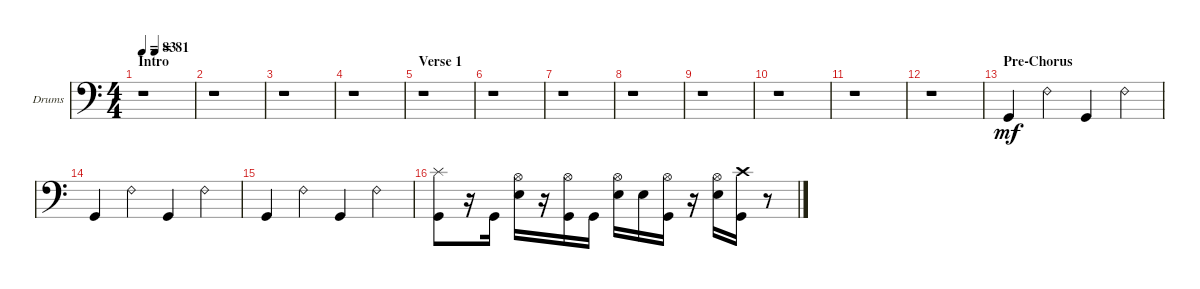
\bracketExtendMode groupsimilarinstruments
\firstSystemTrackNameOrientation horizontal
\otherSystemsTrackNameOrientation horizontal
\track ("Drums" "Drums") {instrument percussion}
\staff {score}
\articulation defaults
\ts (4 4)
\section ("" "Intro")
\tempo 83
\tempo (81 0.25)
\clef f4
\scale
0.474178
\ks c
r.1{dy mf} |
\scale
0.262911 r.1 |
\scale
0.262911 r.1 |
\scale
0.333333 r.1 |
\section ("" "Verse 1")
\scale
0.333333 r.1 |
\scale
0.333333 r.1 |
\scale
0.333333 r.1 |
\scale
0.333333 r.1 |
\scale
0.333333 r.1 |
\scale
0.333333 r.1 |
\scale
0.333333 r.1 |
\scale
0.333333 r.1 |
\section ("" "Pre-Chorus")
\scale
0.333333 "Kick (hit)".4 "Ride (bell) 2".4 "Kick (hit)".4 "Ride (bell) 2".4 |
\scale
0.333333 "Kick (hit)".4 "Ride (bell) 2".4 "Kick (hit)".4 "Ride (bell) 2".4 |
\scale
0.333333 "Kick (hit)".4 "Ride (bell) 2".4 "Kick (hit)".4 "Ride (bell) 2".4 |
\scale
0.333333 ("Kick (hit)" "Splash (hit)").8 r.16 "Kick (hit)".16 ("Snare (hit) 2" "Hi-Hat (open)").16 r.16 ("Kick (hit)" "Hi-Hat (open)").16 "Kick (hit)".16 ("Snare (hit) 2" "Hi-Hat (open)").16 "Snare (hit) 2".16 ("Kick (hit)" "Hi-Hat (open)").16 r.16 ("Snare (hit) 2" "Hi-Hat (open)").16 ("Kick (hit)" "Crash high (hit)").16 r.8
